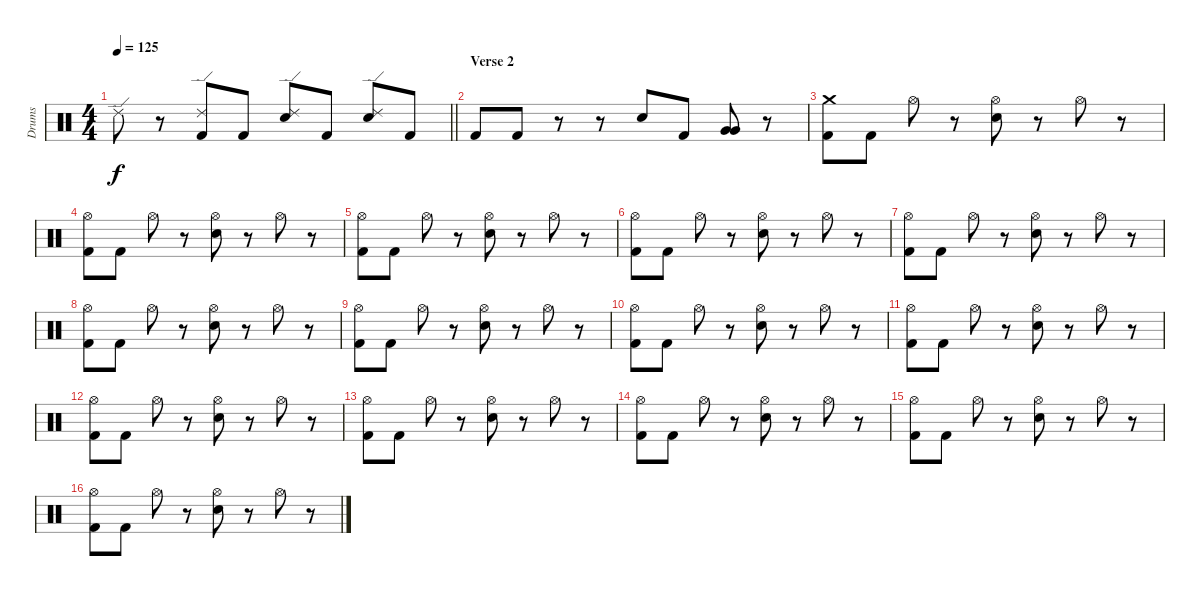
\track ("Drums" "Drums") {instrument percussion}
\staff {score}
\articulation defaults
\ts (4 4)
\tempo 125
\clef neutral
\barLineRight lightlight
\ks c "Ride (edge) 2".8{dy f}
r.8 ("Ride (edge) 2" "Kick (hit) 2").8 "Kick (hit) 2".8 ("Ride (edge) 2" "Electric Snare (hit)").8 "Kick (hit) 2".8 ("Ride (edge) 2" "Electric Snare (hit)").8 "Kick (hit) 2".8 |
\section ("" "Verse 2")
"Kick (hit) 2".8 "Kick (hit) 2".8 r.8 r.8 "Electric Snare (hit)".8 "Kick (hit) 2".8 ("Very Low Tom (hit)" "Very Low Tom (hit)").8 r.8 |
("Crash medium (hit)" "Kick (hit) 2").8 "Kick (hit) 2".8 "Hi-Hat (open)".8 r.8 ("Hi-Hat (open)" "Electric Snare (hit)").8 r.8 "Hi-Hat (open)".8 r.8 |
("Hi-Hat (open)" "Kick (hit) 2").8 "Kick (hit) 2".8 "Hi-Hat (open)".8 r.8 ("Hi-Hat (open)" "Electric Snare (hit)").8 r.8 "Hi-Hat (open)".8 r.8 |
("Hi-Hat (open)" "Kick (hit) 2").8 "Kick (hit) 2".8 "Hi-Hat (open)".8 r.8 ("Hi-Hat (open)" "Electric Snare (hit)").8 r.8 "Hi-Hat (open)".8 r.8 |
("Hi-Hat (open)" "Kick (hit) 2").8 "Kick (hit) 2".8 "Hi-Hat (open)".8 r.8 ("Hi-Hat (open)" "Electric Snare (hit)").8 r.8 "Hi-Hat (open)".8 r.8 |
("Hi-Hat (open)" "Kick (hit) 2").8 "Kick (hit) 2".8 "Hi-Hat (open)".8 r.8 ("Hi-Hat (open)" "Electric Snare (hit)").8 r.8 "Hi-Hat (open)".8 r.8 |
("Hi-Hat (open)" "Kick (hit) 2").8 "Kick (hit) 2".8 "Hi-Hat (open)".8 r.8 ("Hi-Hat (open)" "Electric Snare (hit)").8 r.8 "Hi-Hat (open)".8 r.8 |
("Hi-Hat (open)" "Kick (hit) 2").8 "Kick (hit) 2".8 "Hi-Hat (open)".8 r.8 ("Hi-Hat (open)" "Electric Snare (hit)").8 r.8 "Hi-Hat (open)".8 r.8 |
("Hi-Hat (open)" "Kick (hit) 2").8 "Kick (hit) 2".8 "Hi-Hat (open)".8 r.8 ("Hi-Hat (open)" "Electric Snare (hit)").8 r.8 "Hi-Hat (open)".8 r.8 |
("Hi-Hat (open)" "Kick (hit) 2").8 "Kick (hit) 2".8 "Hi-Hat (open)".8 r.8 ("Hi-Hat (open)" "Electric Snare (hit)").8 r.8 "Hi-Hat (open)".8 r.8 |
("Hi-Hat (open)" "Kick (hit) 2").8 "Kick (hit) 2".8 "Hi-Hat (open)".8 r.8 ("Hi-Hat (open)" "Electric Snare (hit)").8 r.8 "Hi-Hat (open)".8 r.8 |
("Hi-Hat (open)" "Kick (hit) 2").8 "Kick (hit) 2".8 "Hi-Hat (open)".8 r.8 ("Hi-Hat (open)" "Electric Snare (hit)").8 r.8 "Hi-Hat (open)".8 r.8 |
("Hi-Hat (open)" "Kick (hit) 2").8 "Kick (hit) 2".8 "Hi-Hat (open)".8 r.8 ("Hi-Hat (open)" "Electric Snare (hit)").8 r.8 "Hi-Hat (open)".8 r.8 |
("Hi-Hat (open)" "Kick (hit) 2").8 "Kick (hit) 2".8 "Hi-Hat (open)".8 r.8 ("Hi-Hat (open)" "Electric Snare (hit)").8 r.8 "Hi-Hat (open)".8 r.8 |
("Hi-Hat (open)" "Kick (hit) 2").8 "Kick (hit) 2".8 "Hi-Hat (open)".8 r.8 ("Hi-Hat (open)" "Electric Snare (hit)").8 r.8 "Hi-Hat (open)".8 r.8
